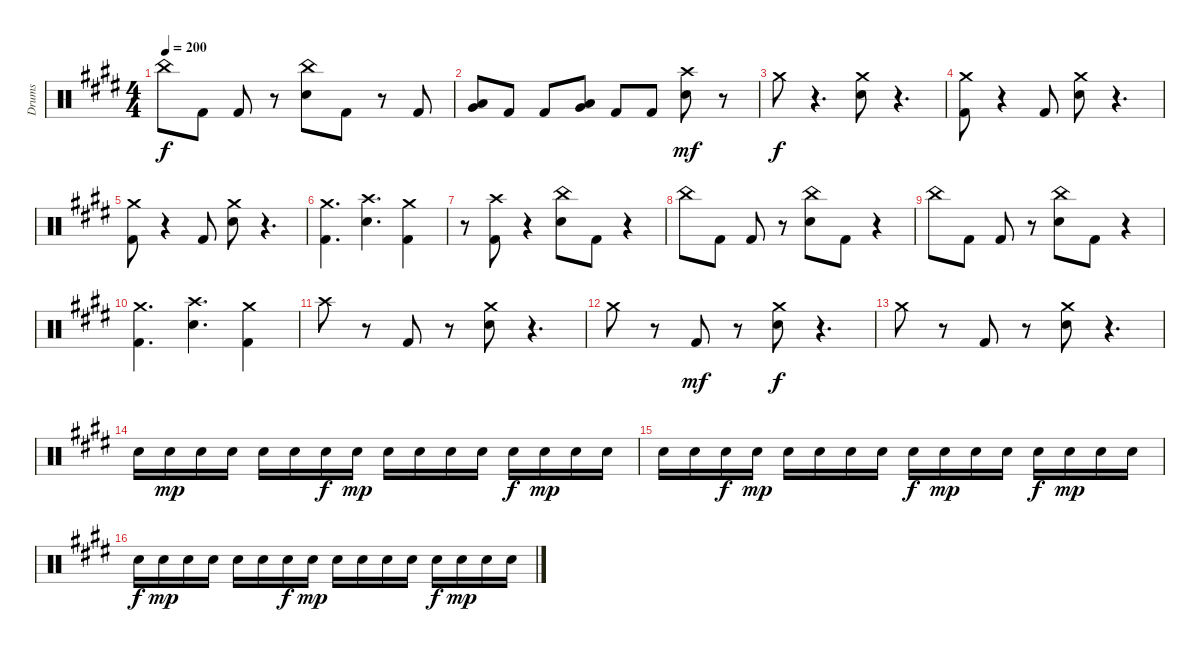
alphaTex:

\track ("Drums" "Drums") {instrument percussion}
\staff {score}
\articulation defaults
\ts (4 4)
\tempo 200
\clef neutral
\ks c#minor "China (hit)".8{dy f} "Kick (hit) 2".8 "Kick (hit) 2".8
r.8 ("China (hit)" "Electric Snare (hit)").8 "Kick (hit) 2".8 r.8 "Kick (hit) 2".8 |
("Low Tom (hit)" "Very Low Tom (hit)").8 "Kick (hit) 2".8 "Kick (hit) 2".8 ("Low Tom (hit)" "Very Low Tom (hit)").8 "Kick (hit) 2".8 "Kick (hit) 2".8 ("Crash high (hit)" "Electric Snare (hit)").8{dy mf} r.8 |
"Crash medium (hit)".8{dy f} r.4{d} ("Crash medium (hit)" "Electric Snare (hit)").8 r.4{d} |
("Crash medium (hit)" "Kick (hit) 2").8 r.4 "Kick (hit) 2".8 ("Crash medium (hit)" "Electric Snare (hit)").8 r.4{d} |
("Crash medium (hit)" "Kick (hit) 2").8 r.4 "Kick (hit) 2".8 ("Crash medium (hit)" "Electric Snare (hit)").8 r.4{d} |
("Crash medium (hit)" "Kick (hit) 2").4{d} ("Crash high (hit)" "Electric Snare (hit)").4{d} ("Crash medium (hit)" "Kick (hit) 2").4 |
r.8 ("Crash high (hit)" "Kick (hit) 2").8 r.4 ("China (hit)" "Electric Snare (hit)").8 "Kick (hit) 2".8 r.4 |
"China (hit)".8 "Kick (hit) 2".8 "Kick (hit) 2".8 r.8 ("China (hit)" "Electric Snare (hit)").8 "Kick (hit) 2".8 r.4 |
"China (hit)".8 "Kick (hit) 2".8 "Kick (hit) 2".8 r.8 ("China (hit)" "Electric Snare (hit)").8 "Kick (hit) 2".8 r.4 |
("Crash medium (hit)" "Kick (hit) 2").4{d} ("Crash high (hit)" "Electric Snare (hit)").4{d} ("Crash medium (hit)" "Kick (hit) 2").4 |
"Crash high (hit)".8 r.8 "Kick (hit) 2".8 r.8 ("Crash medium (hit)" "Electric Snare (hit)").8 r.4{d} |
"Crash medium (hit)".8 r.8 "Kick (hit) 2".8{dy mf} r.8 ("Crash medium (hit)" "Electric Snare (hit)").8{dy f} r.4{d} |
"Crash medium (hit)".8 r.8 "Kick (hit) 2".8 r.8 ("Crash medium (hit)" "Electric Snare (hit)").8 r.4{d} |
"Electric Snare (hit)".16 "Electric Snare (hit)".16{dy mp} "Electric Snare (hit)".16 "Electric Snare (hit)".16 "Electric Snare (hit)".16 "Electric Snare (hit)".16 "Electric Snare (hit)".16{dy f} "Electric Snare (hit)".16{dy mp} "Electric Snare (hit)".16 "Electric Snare (hit)".16 "Electric Snare (hit)".16 "Electric Snare (hit)".16 "Electric Snare (hit)".16{dy f} "Electric Snare (hit)".16{dy mp} "Electric Snare (hit)".16 "Electric Snare (hit)".16 |
"Electric Snare (hit)".16 "Electric Snare (hit)".16 "Electric Snare (hit)".16{dy f} "Electric Snare (hit)".16{dy mp} "Electric Snare (hit)".16 "Electric Snare (hit)".16 "Electric Snare (hit)".16 "Electric Snare (hit)".16 "Electric Snare (hit)".16{dy f} "Electric Snare (hit)".16{dy mp} "Electric Snare (hit)".16 "Electric Snare (hit)".16 "Electric Snare (hit)".16{dy f} "Electric Snare (hit)".16{dy mp} "Electric Snare (hit)".16 "Electric Snare (hit)".16 |
"Electric Snare (hit)".16{dy f} "Electric Snare (hit)".16{dy mp} "Electric Snare (hit)".16 "Electric Snare (hit)".16 "Electric Snare (hit)".16 "Electric Snare (hit)".16 "Electric Snare (hit)".16{dy f} "Electric Snare (hit)".16{dy mp} "Electric Snare (hit)".16 "Electric Snare (hit)".16 "Electric Snare (hit)".16 "Electric Snare (hit)".16 "Electric Snare (hit)".16{dy f} "Electric Snare (hit)".16{dy mp} "Electric Snare (hit)".16 "Electric Snare (hit)".16
